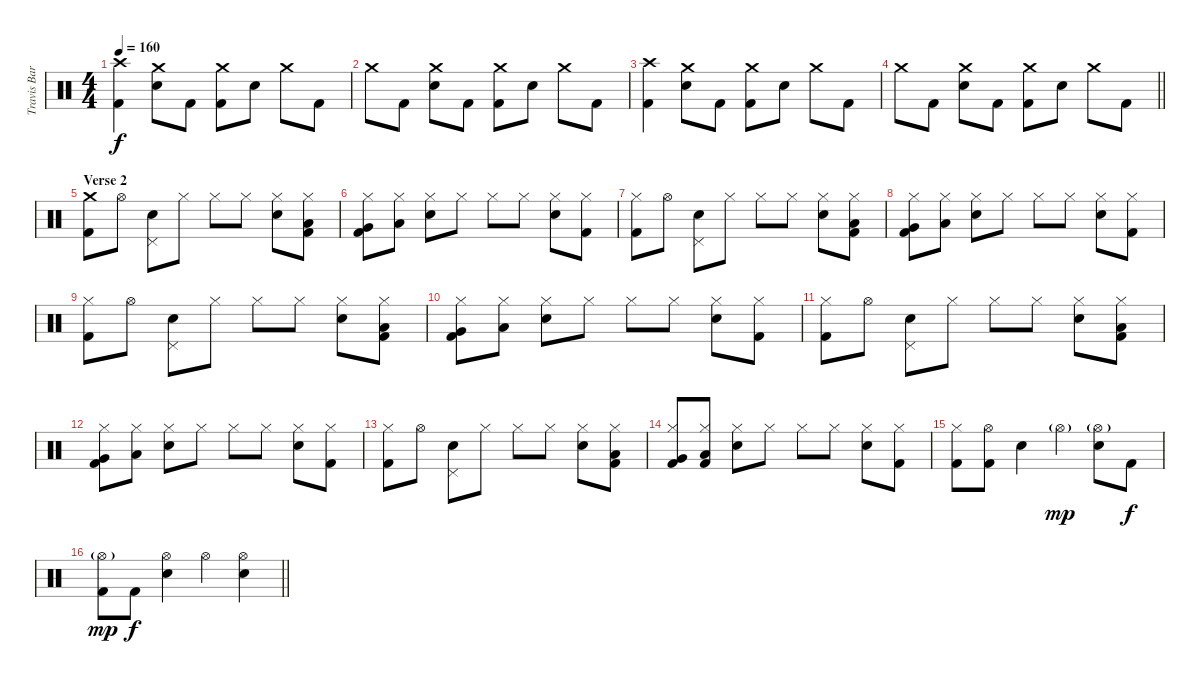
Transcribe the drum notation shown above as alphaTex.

\track ("Travis Barker - Drums" "Travis Bar") {instrument percussion}
\staff {score}
\articulation defaults
\ts (4 4)
\tempo 160
\clef neutral
\ks c
("Crash high (hit)" "Kick (hit) 2").4{dy f} ("Crash medium (hit)" "Electric Snare (hit)").8 "Kick (hit) 2".8 ("Crash medium (hit)" "Kick (hit) 2").8 "Electric Snare (hit)".8 "Crash medium (hit)".8 "Kick (hit) 2".8 |
"Crash medium (hit)".8 "Kick (hit) 2".8 ("Crash medium (hit)" "Electric Snare (hit)").8 "Kick (hit) 2".8 ("Crash medium (hit)" "Kick (hit) 2").8 "Electric Snare (hit)".8 "Crash medium (hit)".8 "Kick (hit) 2".8 |
("Crash high (hit)" "Kick (hit) 2").4 ("Crash medium (hit)" "Electric Snare (hit)").8 "Kick (hit) 2".8 ("Crash medium (hit)" "Kick (hit) 2").8 "Electric Snare (hit)".8 "Crash medium (hit)".8 "Kick (hit) 2".8 |
\barLineRight lightlight "Crash medium (hit)".8 "Kick (hit) 2".8
("Crash medium (hit)" "Electric Snare (hit)").8 "Kick (hit) 2".8 ("Crash medium (hit)" "Kick (hit) 2").8 "Electric Snare (hit)".8 "Crash medium (hit)".8 "Kick (hit) 2".8 |
\section ("" "Verse 2")
("Crash medium (hit)" "Kick (hit) 2").8 "Hi-Hat (open)".8 ("Pedal Hi-Hat (hit)" "Electric Snare (hit)").8 "Hi-Hat (closed)".8 "Hi-Hat (closed)".8 "Hi-Hat (closed)".8 ("Hi-Hat (closed)" "Electric Snare (hit)").8 ("Hi-Hat (closed)" "Low Tom (hit)" "Kick (hit) 2").8 |
("Hi-Hat (closed)" "Very Low Tom (hit)" "Kick (hit) 2").8 ("Hi-Hat (closed)" "Low Floor Tom (hit)").8 ("Hi-Hat (closed)" "Electric Snare (hit)").8 "Hi-Hat (closed)".8 "Hi-Hat (closed)".8 "Hi-Hat (closed)".8 ("Hi-Hat (closed)" "Electric Snare (hit)").8 ("Hi-Hat (closed)" "Kick (hit) 2").8 |
("Hi-Hat (closed)" "Kick (hit) 2").8 "Hi-Hat (open)".8 ("Pedal Hi-Hat (hit)" "Electric Snare (hit)").8 "Hi-Hat (closed)".8 "Hi-Hat (closed)".8 "Hi-Hat (closed)".8 ("Hi-Hat (closed)" "Electric Snare (hit)").8 ("Hi-Hat (closed)" "Low Tom (hit)" "Kick (hit) 2").8 |
("Hi-Hat (closed)" "Very Low Tom (hit)" "Kick (hit) 2").8 ("Hi-Hat (closed)" "Low Floor Tom (hit)").8 ("Hi-Hat (closed)" "Electric Snare (hit)").8 "Hi-Hat (closed)".8 "Hi-Hat (closed)".8 "Hi-Hat (closed)".8 ("Hi-Hat (closed)" "Electric Snare (hit)").8 ("Hi-Hat (closed)" "Kick (hit) 2").8 |
("Hi-Hat (closed)" "Kick (hit) 2").8 "Hi-Hat (open)".8 ("Pedal Hi-Hat (hit)" "Electric Snare (hit)").8 "Hi-Hat (closed)".8 "Hi-Hat (closed)".8 "Hi-Hat (closed)".8 ("Hi-Hat (closed)" "Electric Snare (hit)").8 ("Hi-Hat (closed)" "Low Tom (hit)" "Kick (hit) 2").8 |
("Hi-Hat (closed)" "Very Low Tom (hit)" "Kick (hit) 2").8 ("Hi-Hat (closed)" "Low Floor Tom (hit)").8 ("Hi-Hat (closed)" "Electric Snare (hit)").8 "Hi-Hat (closed)".8 "Hi-Hat (closed)".8 "Hi-Hat (closed)".8 ("Hi-Hat (closed)" "Electric Snare (hit)").8 ("Hi-Hat (closed)" "Kick (hit) 2").8 |
("Hi-Hat (closed)" "Kick (hit) 2").8 "Hi-Hat (open)".8 ("Pedal Hi-Hat (hit)" "Electric Snare (hit)").8 "Hi-Hat (closed)".8 "Hi-Hat (closed)".8 "Hi-Hat (closed)".8 ("Hi-Hat (closed)" "Electric Snare (hit)").8 ("Hi-Hat (closed)" "Low Tom (hit)" "Kick (hit) 2").8 |
("Hi-Hat (closed)" "Very Low Tom (hit)" "Kick (hit) 2").8 ("Hi-Hat (closed)" "Low Floor Tom (hit)").8 ("Hi-Hat (closed)" "Electric Snare (hit)").8 "Hi-Hat (closed)".8 "Hi-Hat (closed)".8 "Hi-Hat (closed)".8 ("Hi-Hat (closed)" "Electric Snare (hit)").8 ("Hi-Hat (closed)" "Kick (hit) 2").8 |
("Hi-Hat (closed)" "Kick (hit) 2").8 "Hi-Hat (open)".8 ("Pedal Hi-Hat (hit)" "Electric Snare (hit)").8 "Hi-Hat (closed)".8 "Hi-Hat (closed)".8 "Hi-Hat (closed)".8 ("Hi-Hat (closed)" "Electric Snare (hit)").8 ("Hi-Hat (closed)" "Low Tom (hit)" "Kick (hit) 2").8 |
("Hi-Hat (closed)" "Very Low Tom (hit)" "Kick (hit) 2").8 ("Hi-Hat (closed)" "Low Floor Tom (hit)" "Kick (hit) 2").8 ("Hi-Hat (closed)" "Electric Snare (hit)").8 "Hi-Hat (closed)".8 "Hi-Hat (closed)".8 "Hi-Hat (closed)".8 ("Hi-Hat (closed)" "Electric Snare (hit)").8 ("Hi-Hat (closed)" "Kick (hit) 2").8 |
("Hi-Hat (closed)" "Kick (hit) 2").8 ("Hi-Hat (open)" "Kick (hit) 2").8 "Electric Snare (hit)".4 "Hi-Hat (open)"{g}.4{dy mp} ("Hi-Hat (open)"{g} "Electric Snare (hit)").8 "Kick (hit) 2".8{dy f} |
\barLineRight lightlight
("Hi-Hat (open)"{g} "Kick (hit) 2").8{dy mp} "Kick (hit) 2".8{dy f} ("Hi-Hat (open)" "Electric Snare (hit)").4 "Hi-Hat (open)".4 ("Hi-Hat (open)" "Electric Snare (hit)").4
